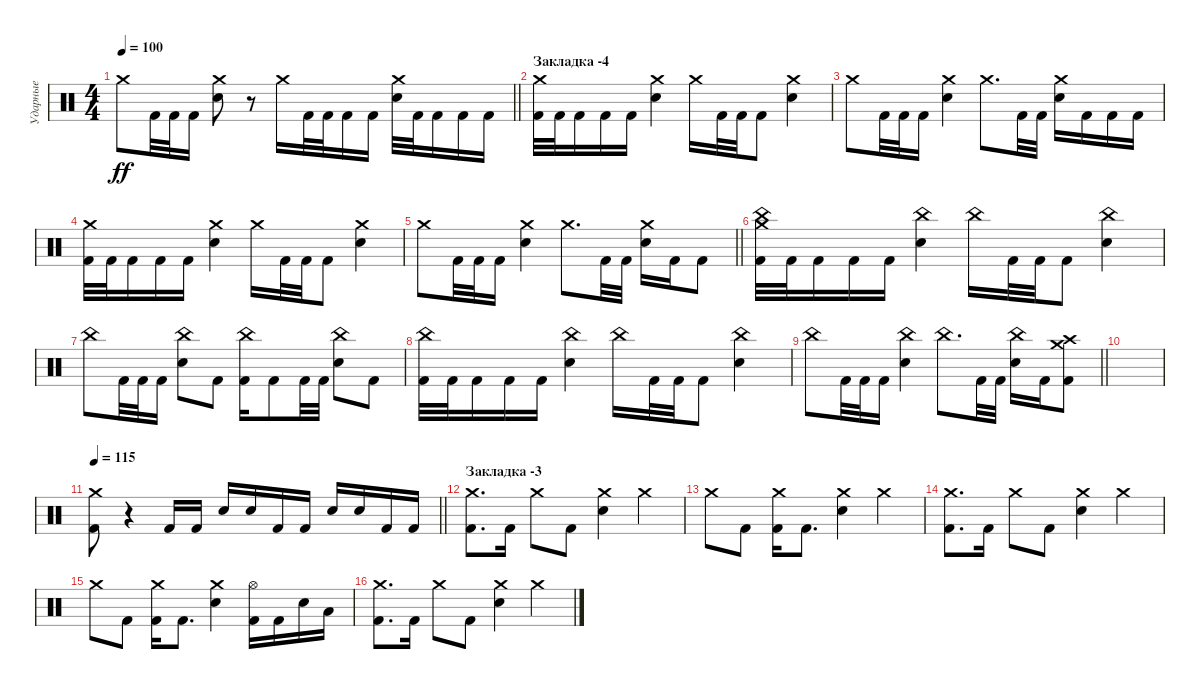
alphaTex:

\track ("Ударные" "Ударные") {instrument percussion}
\staff {score}
\articulation defaults
\ts (4 4)
\tempo 100
\clef neutral
\barLineRight lightlight
\ks c "Crash medium (hit)".8{dy ff} "Kick (hit) 2".32 "Kick (hit) 2".32 "Kick (hit) 2".16
("Crash medium (hit)" "Electric Snare (hit)").8 r.8 "Crash medium (hit)".16 "Kick (hit) 2".32 "Kick (hit) 2".32 "Kick (hit) 2".16 "Kick (hit) 2".16 ("Crash medium (hit)" "Electric Snare (hit)").32 "Kick (hit) 2".32 "Kick (hit) 2".16 "Kick (hit) 2".16 "Kick (hit) 2".16 |
\section ("" "Закладка -4")
("Crash medium (hit)" "Kick (hit) 2").32 "Kick (hit) 2".32 "Kick (hit) 2".16 "Kick (hit) 2".16 "Kick (hit) 2".16 ("Crash medium (hit)" "Electric Snare (hit)").4 "Crash medium (hit)".16 "Kick (hit) 2".32 "Kick (hit) 2".32 "Kick (hit) 2".8 ("Crash medium (hit)" "Electric Snare (hit)").4 |
"Crash medium (hit)".8 "Kick (hit) 2".32 "Kick (hit) 2".32 "Kick (hit) 2".16 ("Crash medium (hit)" "Electric Snare (hit)").4 "Crash medium (hit)".8{d} "Kick (hit) 2".32 "Kick (hit) 2".32 ("Crash medium (hit)" "Electric Snare (hit)").16 "Kick (hit) 2".16 "Kick (hit) 2".16 "Kick (hit) 2".16 |
("Crash medium (hit)" "Kick (hit) 2").32 "Kick (hit) 2".32 "Kick (hit) 2".16 "Kick (hit) 2".16 "Kick (hit) 2".16 ("Crash medium (hit)" "Electric Snare (hit)").4 "Crash medium (hit)".16 "Kick (hit) 2".32 "Kick (hit) 2".32 "Kick (hit) 2".8 ("Crash medium (hit)" "Electric Snare (hit)").4 |
\barLineRight lightlight "Crash medium (hit)".8 "Kick (hit) 2".32 "Kick (hit) 2".32 "Kick (hit) 2".16
("Crash medium (hit)" "Electric Snare (hit)").4 "Crash medium (hit)".8{d} "Kick (hit) 2".32 "Kick (hit) 2".32 ("Crash medium (hit)" "Electric Snare (hit)").16 "Kick (hit) 2".16 "Kick (hit) 2".8 |
("Crash medium (hit)" "China (hit)" "Kick (hit) 2").32 "Kick (hit) 2".32 "Kick (hit) 2".16 "Kick (hit) 2".16 "Kick (hit) 2".16 ("China (hit)" "Electric Snare (hit)").4 "China (hit)".16 "Kick (hit) 2".32 "Kick (hit) 2".32 "Kick (hit) 2".8 ("China (hit)" "Electric Snare (hit)").4 |
"China (hit)".8 "Kick (hit) 2".32 "Kick (hit) 2".32 "Kick (hit) 2".16 ("China (hit)" "Electric Snare (hit)").8 "Kick (hit) 2".8 ("China (hit)" "Kick (hit) 2").16 "Kick (hit) 2".8 "Kick (hit) 2".32 "Kick (hit) 2".32 ("China (hit)" "Electric Snare (hit)").8 "Kick (hit) 2".8 |
("China (hit)" "Kick (hit) 2").32 "Kick (hit) 2".32 "Kick (hit) 2".16 "Kick (hit) 2".16 "Kick (hit) 2".16 ("China (hit)" "Electric Snare (hit)").4 "China (hit)".16 "Kick (hit) 2".32 "Kick (hit) 2".32 "Kick (hit) 2".8 ("China (hit)" "Electric Snare (hit)").4 |
\barLineRight lightlight "China (hit)".8 "Kick (hit) 2".32 "Kick (hit) 2".32 "Kick (hit) 2".16
("China (hit)" "Electric Snare (hit)").4 "China (hit)".8{d} "Kick (hit) 2".32 "Kick (hit) 2".32 ("China (hit)" "Electric Snare (hit)").16 "Kick (hit) 2".16 ("Crash medium (hit)" "Crash high (hit)" "Kick (hit) 2").8 |
|
\tempo 115
\barLineRight lightlight
("Crash medium (hit)" "Kick (hit) 2").8 r.4 "Kick (hit) 2".16 "Kick (hit) 2".16 "Electric Snare (hit)".16 "Electric Snare (hit)".16 "Kick (hit) 2".16 "Kick (hit) 2".16 "Electric Snare (hit)".16 "Electric Snare (hit)".16 "Kick (hit) 2".16 "Kick (hit) 2".16 |
\section ("" "Закладка -3")
("Crash medium (hit)" "Kick (hit) 2").8{d} "Kick (hit) 2".16 "Crash medium (hit)".8 "Kick (hit) 2".8 ("Crash medium (hit)" "Electric Snare (hit)").4 "Crash medium (hit)".4 |
"Crash medium (hit)".8 "Kick (hit) 2".8 ("Crash medium (hit)" "Kick (hit) 2").16 "Kick (hit) 2".8{d} ("Crash medium (hit)" "Electric Snare (hit)").4 "Crash medium (hit)".4 |
("Crash medium (hit)" "Kick (hit) 2").8{d} "Kick (hit) 2".16 "Crash medium (hit)".8 "Kick (hit) 2".8 ("Crash medium (hit)" "Electric Snare (hit)").4 "Crash medium (hit)".4 |
"Crash medium (hit)".8 "Kick (hit) 2".8 ("Crash medium (hit)" "Kick (hit) 2").16 "Kick (hit) 2".8{d} ("Crash medium (hit)" "Electric Snare (hit)").4 ("Hi-Hat (open)" "Kick (hit) 2").16 "Kick (hit) 2".16 "Electric Snare (hit)".16 "Low Tom (hit)".16 |
("Crash medium (hit)" "Kick (hit) 2").8{d} "Kick (hit) 2".16 "Crash medium (hit)".8 "Kick (hit) 2".8 ("Crash medium (hit)" "Electric Snare (hit)").4 "Crash medium (hit)".4
